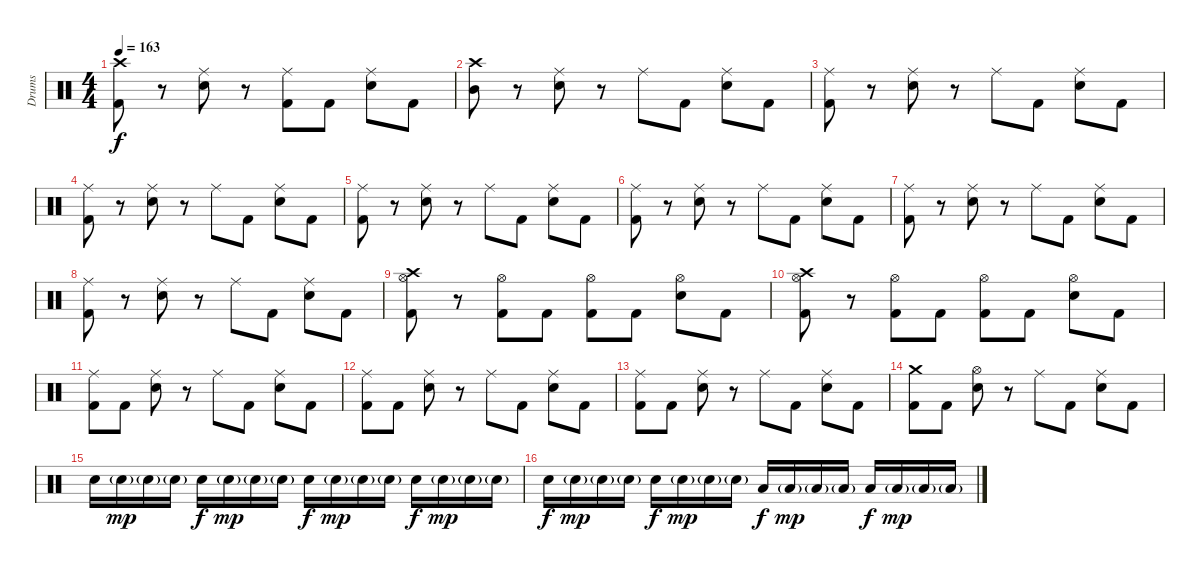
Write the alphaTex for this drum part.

\track ("Drums" "Drums") {instrument percussion}
\staff {score}
\articulation defaults
\ts (4 4)
\tempo 163
\clef neutral
\ks c
("Crash high (hit)" "Kick (hit) 2").8{dy f} r.8 ("Ride (middle)" "Electric Snare (hit)").8 r.8 ("Ride (middle)" "Kick (hit) 2").8 "Kick (hit) 2".8 ("Ride (middle)" "Electric Snare (hit)").8 "Kick (hit) 2".8 |
("Crash high (hit)" "Mid Tom (hit)").8 r.8 ("Ride (middle)" "Electric Snare (hit)").8 r.8 "Ride (middle)".8 "Kick (hit) 2".8 ("Ride (middle)" "Electric Snare (hit)").8 "Kick (hit) 2".8 |
("Ride (middle)" "Kick (hit) 2").8 r.8 ("Ride (middle)" "Electric Snare (hit)").8 r.8 "Ride (middle)".8 "Kick (hit) 2".8 ("Ride (middle)" "Electric Snare (hit)").8 "Kick (hit) 2".8 |
("Ride (middle)" "Kick (hit) 2").8 r.8 ("Ride (middle)" "Electric Snare (hit)").8 r.8 "Ride (middle)".8 "Kick (hit) 2".8 ("Ride (middle)" "Electric Snare (hit)").8 "Kick (hit) 2".8 |
("Ride (middle)" "Kick (hit) 2").8 r.8 ("Ride (middle)" "Electric Snare (hit)").8 r.8 "Ride (middle)".8 "Kick (hit) 2".8 ("Ride (middle)" "Electric Snare (hit)").8 "Kick (hit) 2".8 |
("Ride (middle)" "Kick (hit) 2").8 r.8 ("Ride (middle)" "Electric Snare (hit)").8 r.8 "Ride (middle)".8 "Kick (hit) 2".8 ("Ride (middle)" "Electric Snare (hit)").8 "Kick (hit) 2".8 |
("Ride (middle)" "Kick (hit) 2").8 r.8 ("Ride (middle)" "Electric Snare (hit)").8 r.8 "Ride (middle)".8 "Kick (hit) 2".8 ("Ride (middle)" "Electric Snare (hit)").8 "Kick (hit) 2".8 |
("Ride (middle)" "Kick (hit) 2").8 r.8 ("Ride (middle)" "Electric Snare (hit)").8 r.8 "Ride (middle)".8 "Kick (hit) 2".8 ("Ride (middle)" "Electric Snare (hit)").8 "Kick (hit) 2".8 |
("Crash high (hit)" "Hi-Hat (open)" "Kick (hit) 2").8 r.8 ("Hi-Hat (open)" "Kick (hit) 2").8 "Kick (hit) 2".8 ("Hi-Hat (open)" "Kick (hit) 2").8 "Kick (hit) 2".8 ("Hi-Hat (open)" "Electric Snare (hit)").8 "Kick (hit) 2".8 |
("Crash high (hit)" "Hi-Hat (open)" "Kick (hit) 2").8 r.8 ("Hi-Hat (open)" "Kick (hit) 2").8 "Kick (hit) 2".8 ("Hi-Hat (open)" "Kick (hit) 2").8 "Kick (hit) 2".8 ("Hi-Hat (open)" "Electric Snare (hit)").8 "Kick (hit) 2".8 |
("Ride (middle)" "Kick (hit) 2").8 "Kick (hit) 2".8 ("Ride (middle)" "Electric Snare (hit)").8 r.8 "Ride (middle)".8 "Kick (hit) 2".8 ("Ride (middle)" "Electric Snare (hit)").8 "Kick (hit) 2".8 |
("Ride (middle)" "Kick (hit) 2").8 "Kick (hit) 2".8 ("Ride (middle)" "Electric Snare (hit)").8 r.8 "Ride (middle)".8 "Kick (hit) 2".8 ("Ride (middle)" "Electric Snare (hit)").8 "Kick (hit) 2".8 |
("Ride (middle)" "Kick (hit) 2").8 "Kick (hit) 2".8 ("Ride (middle)" "Electric Snare (hit)").8 r.8 "Ride (middle)".8 "Kick (hit) 2".8 ("Ride (middle)" "Electric Snare (hit)").8 "Kick (hit) 2".8 |
("Crash medium (hit)" "Kick (hit) 2").8 "Kick (hit) 2".8 ("Hi-Hat (open)" "Electric Snare (hit)").8 r.8 "Ride (middle)".8 "Kick (hit) 2".8 ("Ride (middle)" "Electric Snare (hit)").8 "Kick (hit) 2".8 |
"Electric Snare (hit)".16 "Electric Snare (hit)"{g}.16{dy mp} "Electric Snare (hit)"{g}.16 "Electric Snare (hit)"{g}.16 "Electric Snare (hit)".16{dy f} "Electric Snare (hit)"{g}.16{dy mp} "Electric Snare (hit)"{g}.16 "Electric Snare (hit)"{g}.16 "Electric Snare (hit)".16{dy f} "Electric Snare (hit)"{g}.16{dy mp} "Electric Snare (hit)"{g}.16 "Electric Snare (hit)"{g}.16 "Electric Snare (hit)".16{dy f} "Electric Snare (hit)"{g}.16{dy mp} "Electric Snare (hit)"{g}.16 "Electric Snare (hit)"{g}.16 |
"Electric Snare (hit)".16{dy f} "Electric Snare (hit)"{g}.16{dy mp} "Electric Snare (hit)"{g}.16 "Electric Snare (hit)"{g}.16 "Electric Snare (hit)".16{dy f} "Electric Snare (hit)"{g}.16{dy mp} "Electric Snare (hit)"{g}.16 "Electric Snare (hit)"{g}.16 "Low Tom (hit)".16{dy f} "Low Tom (hit)"{g}.16{dy mp} "Low Tom (hit)"{g}.16 "Low Tom (hit)"{g}.16 "Low Floor Tom (hit)".16{dy f} "Low Floor Tom (hit)"{g}.16{dy mp} "Low Floor Tom (hit)"{g}.16 "Low Floor Tom (hit)"{g}.16
